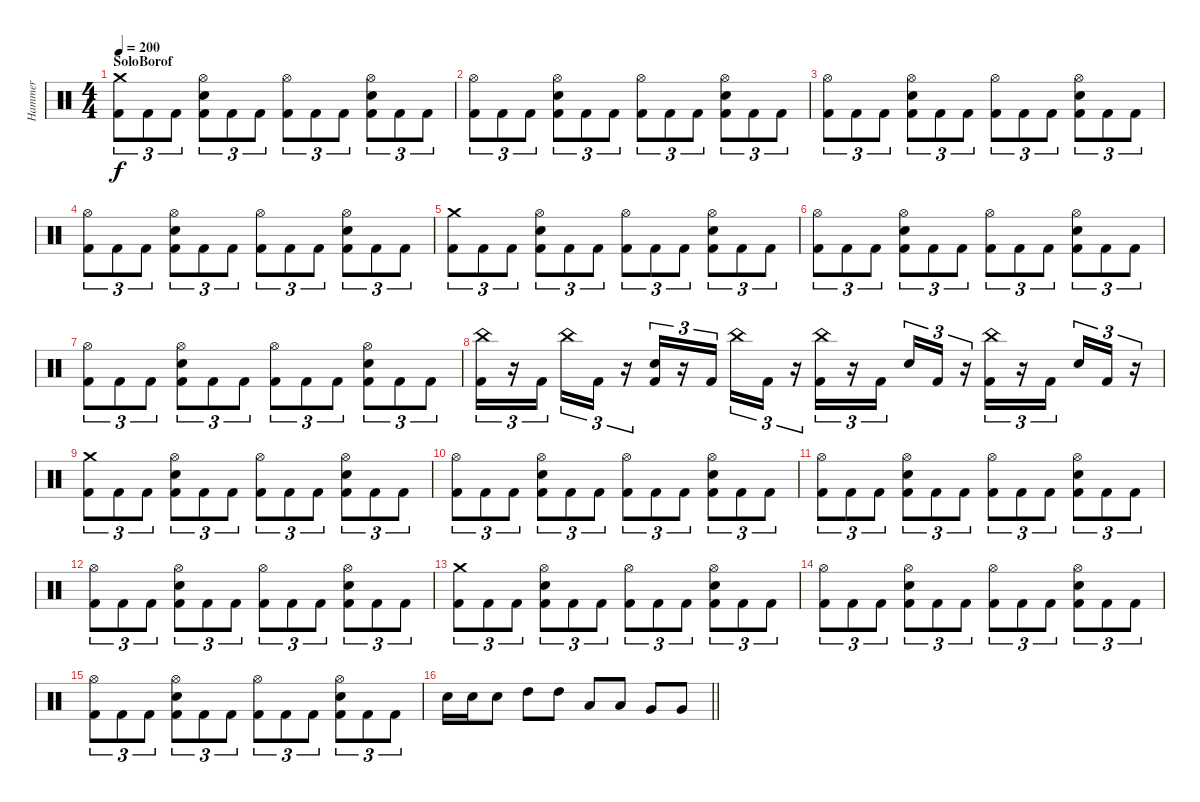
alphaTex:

\track ("Hammer" "Hammer") {instrument percussion}
\staff {score}
\articulation defaults
\ts (4 4)
\section ("" "SoloBorof")
\tempo 200
\clef neutral
\ks c
("Crash medium (hit)" "Kick (hit) 2").8{tu (3 2) dy f} "Kick (hit) 2".8{tu (3 2)} "Kick (hit) 2".8{tu (3 2)} ("Snare (hit) 2" "Hi-Hat (open)" "Kick (hit) 2").8{tu (3 2)} "Kick (hit) 2".8{tu (3 2)} "Kick (hit) 2".8{tu (3 2)} ("Kick (hit) 2" "Hi-Hat (open)").8{tu (3 2)} "Kick (hit) 2".8{tu (3 2)} "Kick (hit) 2".8{tu (3 2)} ("Snare (hit) 2" "Kick (hit) 2" "Hi-Hat (open)").8{tu (3 2)} "Kick (hit) 2".8{tu (3 2)} "Kick (hit) 2".8{tu (3 2)} |
("Hi-Hat (open)" "Kick (hit) 2").8{tu (3 2)} "Kick (hit) 2".8{tu (3 2)} "Kick (hit) 2".8{tu (3 2)} ("Snare (hit) 2" "Hi-Hat (open)" "Kick (hit) 2").8{tu (3 2)} "Kick (hit) 2".8{tu (3 2)} "Kick (hit) 2".8{tu (3 2)} ("Kick (hit) 2" "Hi-Hat (open)").8{tu (3 2)} "Kick (hit) 2".8{tu (3 2)} "Kick (hit) 2".8{tu (3 2)} ("Snare (hit) 2" "Kick (hit) 2" "Hi-Hat (open)").8{tu (3 2)} "Kick (hit) 2".8{tu (3 2)} "Kick (hit) 2".8{tu (3 2)} |
("Hi-Hat (open)" "Kick (hit) 2").8{tu (3 2)} "Kick (hit) 2".8{tu (3 2)} "Kick (hit) 2".8{tu (3 2)} ("Snare (hit) 2" "Hi-Hat (open)" "Kick (hit) 2").8{tu (3 2)} "Kick (hit) 2".8{tu (3 2)} "Kick (hit) 2".8{tu (3 2)} ("Kick (hit) 2" "Hi-Hat (open)").8{tu (3 2)} "Kick (hit) 2".8{tu (3 2)} "Kick (hit) 2".8{tu (3 2)} ("Snare (hit) 2" "Kick (hit) 2" "Hi-Hat (open)").8{tu (3 2)} "Kick (hit) 2".8{tu (3 2)} "Kick (hit) 2".8{tu (3 2)} |
("Hi-Hat (open)" "Kick (hit) 2").8{tu (3 2)} "Kick (hit) 2".8{tu (3 2)} "Kick (hit) 2".8{tu (3 2)} ("Snare (hit) 2" "Hi-Hat (open)" "Kick (hit) 2").8{tu (3 2)} "Kick (hit) 2".8{tu (3 2)} "Kick (hit) 2".8{tu (3 2)} ("Kick (hit) 2" "Hi-Hat (open)").8{tu (3 2)} "Kick (hit) 2".8{tu (3 2)} "Kick (hit) 2".8{tu (3 2)} ("Snare (hit) 2" "Kick (hit) 2" "Hi-Hat (open)").8{tu (3 2)} "Kick (hit) 2".8{tu (3 2)} "Kick (hit) 2".8{tu (3 2)} |
("Crash medium (hit)" "Kick (hit) 2").8{tu (3 2)} "Kick (hit) 2".8{tu (3 2)} "Kick (hit) 2".8{tu (3 2)} ("Snare (hit) 2" "Hi-Hat (open)" "Kick (hit) 2").8{tu (3 2)} "Kick (hit) 2".8{tu (3 2)} "Kick (hit) 2".8{tu (3 2)} ("Kick (hit) 2" "Hi-Hat (open)").8{tu (3 2)} "Kick (hit) 2".8{tu (3 2)} "Kick (hit) 2".8{tu (3 2)} ("Snare (hit) 2" "Kick (hit) 2" "Hi-Hat (open)").8{tu (3 2)} "Kick (hit) 2".8{tu (3 2)} "Kick (hit) 2".8{tu (3 2)} |
("Hi-Hat (open)" "Kick (hit) 2").8{tu (3 2)} "Kick (hit) 2".8{tu (3 2)} "Kick (hit) 2".8{tu (3 2)} ("Snare (hit) 2" "Hi-Hat (open)" "Kick (hit) 2").8{tu (3 2)} "Kick (hit) 2".8{tu (3 2)} "Kick (hit) 2".8{tu (3 2)} ("Kick (hit) 2" "Hi-Hat (open)").8{tu (3 2)} "Kick (hit) 2".8{tu (3 2)} "Kick (hit) 2".8{tu (3 2)} ("Snare (hit) 2" "Kick (hit) 2" "Hi-Hat (open)").8{tu (3 2)} "Kick (hit) 2".8{tu (3 2)} "Kick (hit) 2".8{tu (3 2)} |
("Hi-Hat (open)" "Kick (hit) 2").8{tu (3 2)} "Kick (hit) 2".8{tu (3 2)} "Kick (hit) 2".8{tu (3 2)} ("Snare (hit) 2" "Hi-Hat (open)" "Kick (hit) 2").8{tu (3 2)} "Kick (hit) 2".8{tu (3 2)} "Kick (hit) 2".8{tu (3 2)} ("Kick (hit) 2" "Hi-Hat (open)").8{tu (3 2)} "Kick (hit) 2".8{tu (3 2)} "Kick (hit) 2".8{tu (3 2)} ("Snare (hit) 2" "Kick (hit) 2" "Hi-Hat (open)").8{tu (3 2)} "Kick (hit) 2".8{tu (3 2)} "Kick (hit) 2".8{tu (3 2)} |
("Kick (hit) 2" "China (hit)").16{tu (3 2)} r.16{tu (3 2)} "Kick (hit) 2".16{tu (3 2) beam splitsecondary} "China (hit)".16{tu (3 2)} "Kick (hit) 2".16{tu (3 2)} r.16{tu (3 2)} ("Kick (hit) 2" "Snare (hit) 2").16{tu (3 2)} r.16{tu (3 2)} "Kick (hit) 2".16{tu (3 2) beam splitsecondary} "China (hit)".16{tu (3 2)} "Kick (hit) 2".16{tu (3 2)} r.16{tu (3 2)} ("Kick (hit) 2" "China (hit)").16{tu (3 2)} r.16{tu (3 2)} "Kick (hit) 2".16{tu (3 2) beam splitsecondary} "Snare (hit) 2".16{tu (3 2)} "Kick (hit) 2".16{tu (3 2)} r.16{tu (3 2)} ("Kick (hit) 2" "China (hit)").16{tu (3 2)} r.16{tu (3 2)} "Kick (hit) 2".16{tu (3 2) beam splitsecondary} "Snare (hit) 2".16{tu (3 2)} "Kick (hit) 2".16{tu (3 2)} r.16{tu (3 2)} |
("Crash medium (hit)" "Kick (hit) 2").8{tu (3 2)} "Kick (hit) 2".8{tu (3 2)} "Kick (hit) 2".8{tu (3 2)} ("Snare (hit) 2" "Hi-Hat (open)" "Kick (hit) 2").8{tu (3 2)} "Kick (hit) 2".8{tu (3 2)} "Kick (hit) 2".8{tu (3 2)} ("Kick (hit) 2" "Hi-Hat (open)").8{tu (3 2)} "Kick (hit) 2".8{tu (3 2)} "Kick (hit) 2".8{tu (3 2)} ("Snare (hit) 2" "Kick (hit) 2" "Hi-Hat (open)").8{tu (3 2)} "Kick (hit) 2".8{tu (3 2)} "Kick (hit) 2".8{tu (3 2)} |
("Hi-Hat (open)" "Kick (hit) 2").8{tu (3 2)} "Kick (hit) 2".8{tu (3 2)} "Kick (hit) 2".8{tu (3 2)} ("Snare (hit) 2" "Hi-Hat (open)" "Kick (hit) 2").8{tu (3 2)} "Kick (hit) 2".8{tu (3 2)} "Kick (hit) 2".8{tu (3 2)} ("Kick (hit) 2" "Hi-Hat (open)").8{tu (3 2)} "Kick (hit) 2".8{tu (3 2)} "Kick (hit) 2".8{tu (3 2)} ("Snare (hit) 2" "Kick (hit) 2" "Hi-Hat (open)").8{tu (3 2)} "Kick (hit) 2".8{tu (3 2)} "Kick (hit) 2".8{tu (3 2)} |
("Hi-Hat (open)" "Kick (hit) 2").8{tu (3 2)} "Kick (hit) 2".8{tu (3 2)} "Kick (hit) 2".8{tu (3 2)} ("Snare (hit) 2" "Hi-Hat (open)" "Kick (hit) 2").8{tu (3 2)} "Kick (hit) 2".8{tu (3 2)} "Kick (hit) 2".8{tu (3 2)} ("Kick (hit) 2" "Hi-Hat (open)").8{tu (3 2)} "Kick (hit) 2".8{tu (3 2)} "Kick (hit) 2".8{tu (3 2)} ("Snare (hit) 2" "Kick (hit) 2" "Hi-Hat (open)").8{tu (3 2)} "Kick (hit) 2".8{tu (3 2)} "Kick (hit) 2".8{tu (3 2)} |
("Hi-Hat (open)" "Kick (hit) 2").8{tu (3 2)} "Kick (hit) 2".8{tu (3 2)} "Kick (hit) 2".8{tu (3 2)} ("Snare (hit) 2" "Hi-Hat (open)" "Kick (hit) 2").8{tu (3 2)} "Kick (hit) 2".8{tu (3 2)} "Kick (hit) 2".8{tu (3 2)} ("Kick (hit) 2" "Hi-Hat (open)").8{tu (3 2)} "Kick (hit) 2".8{tu (3 2)} "Kick (hit) 2".8{tu (3 2)} ("Snare (hit) 2" "Kick (hit) 2" "Hi-Hat (open)").8{tu (3 2)} "Kick (hit) 2".8{tu (3 2)} "Kick (hit) 2".8{tu (3 2)} |
("Crash medium (hit)" "Kick (hit) 2").8{tu (3 2)} "Kick (hit) 2".8{tu (3 2)} "Kick (hit) 2".8{tu (3 2)} ("Snare (hit) 2" "Hi-Hat (open)" "Kick (hit) 2").8{tu (3 2)} "Kick (hit) 2".8{tu (3 2)} "Kick (hit) 2".8{tu (3 2)} ("Kick (hit) 2" "Hi-Hat (open)").8{tu (3 2)} "Kick (hit) 2".8{tu (3 2)} "Kick (hit) 2".8{tu (3 2)} ("Snare (hit) 2" "Kick (hit) 2" "Hi-Hat (open)").8{tu (3 2)} "Kick (hit) 2".8{tu (3 2)} "Kick (hit) 2".8{tu (3 2)} |
("Hi-Hat (open)" "Kick (hit) 2").8{tu (3 2)} "Kick (hit) 2".8{tu (3 2)} "Kick (hit) 2".8{tu (3 2)} ("Snare (hit) 2" "Hi-Hat (open)" "Kick (hit) 2").8{tu (3 2)} "Kick (hit) 2".8{tu (3 2)} "Kick (hit) 2".8{tu (3 2)} ("Kick (hit) 2" "Hi-Hat (open)").8{tu (3 2)} "Kick (hit) 2".8{tu (3 2)} "Kick (hit) 2".8{tu (3 2)} ("Snare (hit) 2" "Kick (hit) 2" "Hi-Hat (open)").8{tu (3 2)} "Kick (hit) 2".8{tu (3 2)} "Kick (hit) 2".8{tu (3 2)} |
("Hi-Hat (open)" "Kick (hit) 2").8{tu (3 2)} "Kick (hit) 2".8{tu (3 2)} "Kick (hit) 2".8{tu (3 2)} ("Snare (hit) 2" "Hi-Hat (open)" "Kick (hit) 2").8{tu (3 2)} "Kick (hit) 2".8{tu (3 2)} "Kick (hit) 2".8{tu (3 2)} ("Kick (hit) 2" "Hi-Hat (open)").8{tu (3 2)} "Kick (hit) 2".8{tu (3 2)} "Kick (hit) 2".8{tu (3 2)} ("Snare (hit) 2" "Kick (hit) 2" "Hi-Hat (open)").8{tu (3 2)} "Kick (hit) 2".8{tu (3 2)} "Kick (hit) 2".8{tu (3 2)} |
\barLineRight lightlight "Snare (hit) 2".16 "Snare (hit) 2".16 "Snare (hit) 2".8 "High Tom (hit)".8 "High Tom (hit)".8 "Low Tom (hit)".8 "Low Tom (hit)".8 "Very Low Tom (hit)".8 "Very Low Tom (hit)".8
